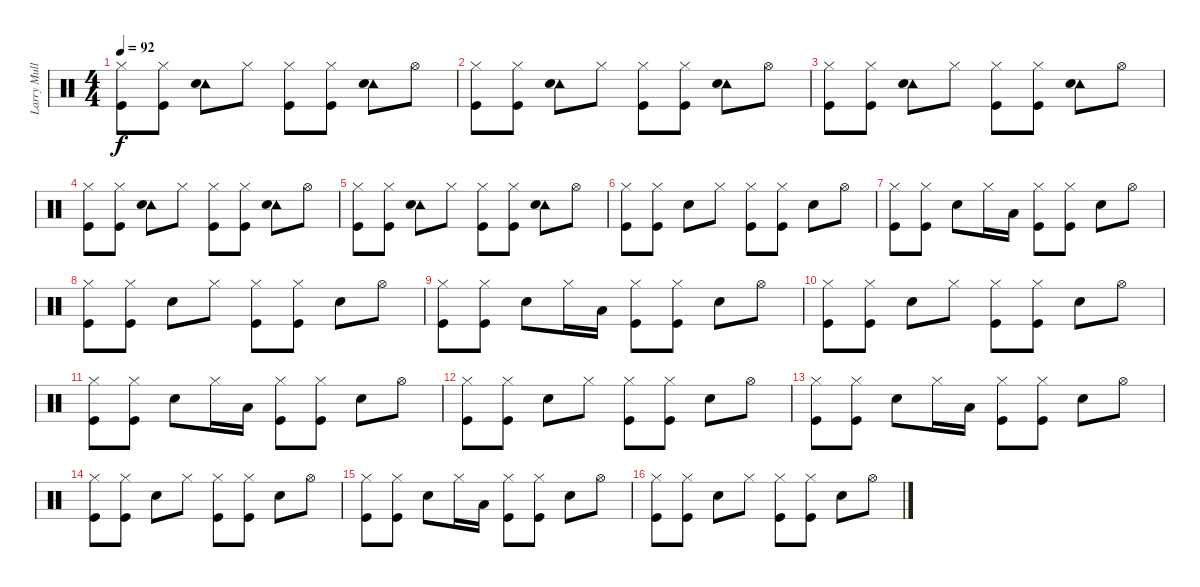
\track ("Larry Mullen Junior" "Larry Mull") {instrument percussion}
\staff {score}
\articulation defaults
\ts (4 4)
\tempo 92
\clef neutral
\ks c
("Hi-Hat (closed)" "Kick (hit)").8{dy f} ("Hi-Hat (closed)" "Kick (hit)").8 ("Tambourine (hit)" "Electric Snare (hit)").8 "Hi-Hat (closed)".8 ("Hi-Hat (closed)" "Kick (hit)").8 ("Hi-Hat (closed)" "Kick (hit)").8 ("Tambourine (hit)" "Electric Snare (hit)").8 "Hi-Hat (open)".8 |
("Hi-Hat (closed)" "Kick (hit)").8 ("Hi-Hat (closed)" "Kick (hit)").8 ("Tambourine (hit)" "Electric Snare (hit)").8 "Hi-Hat (closed)".8 ("Hi-Hat (closed)" "Kick (hit)").8 ("Hi-Hat (closed)" "Kick (hit)").8 ("Tambourine (hit)" "Electric Snare (hit)").8 "Hi-Hat (open)".8 |
("Hi-Hat (closed)" "Kick (hit)").8 ("Hi-Hat (closed)" "Kick (hit)").8 ("Tambourine (hit)" "Electric Snare (hit)").8 "Hi-Hat (closed)".8 ("Hi-Hat (closed)" "Kick (hit)").8 ("Hi-Hat (closed)" "Kick (hit)").8 ("Tambourine (hit)" "Electric Snare (hit)").8 "Hi-Hat (open)".8 |
("Hi-Hat (closed)" "Kick (hit)").8 ("Hi-Hat (closed)" "Kick (hit)").8 ("Tambourine (hit)" "Electric Snare (hit)").8 "Hi-Hat (closed)".8 ("Hi-Hat (closed)" "Kick (hit)").8 ("Hi-Hat (closed)" "Kick (hit)").8 ("Tambourine (hit)" "Electric Snare (hit)").8 "Hi-Hat (open)".8 |
("Hi-Hat (closed)" "Kick (hit)").8 ("Hi-Hat (closed)" "Kick (hit)").8 ("Tambourine (hit)" "Electric Snare (hit)").8 "Hi-Hat (closed)".8 ("Hi-Hat (closed)" "Kick (hit)").8 ("Hi-Hat (closed)" "Kick (hit)").8 ("Tambourine (hit)" "Electric Snare (hit)").8 "Hi-Hat (open)".8 |
("Hi-Hat (closed)" "Kick (hit)").8 ("Hi-Hat (closed)" "Kick (hit)").8 "Electric Snare (hit)".8 "Hi-Hat (closed)".8 ("Hi-Hat (closed)" "Kick (hit)").8 ("Hi-Hat (closed)" "Kick (hit)").8 "Electric Snare (hit)".8 "Hi-Hat (open)".8 |
("Hi-Hat (closed)" "Kick (hit)").8 ("Hi-Hat (closed)" "Kick (hit)").8 "Electric Snare (hit)".8 "Hi-Hat (closed)".16 "Low Floor Tom (hit)".16 ("Hi-Hat (closed)" "Kick (hit)").8 ("Hi-Hat (closed)" "Kick (hit)").8 "Electric Snare (hit)".8 "Hi-Hat (open)".8 |
("Hi-Hat (closed)" "Kick (hit)").8 ("Hi-Hat (closed)" "Kick (hit)").8 "Electric Snare (hit)".8 "Hi-Hat (closed)".8 ("Hi-Hat (closed)" "Kick (hit)").8 ("Hi-Hat (closed)" "Kick (hit)").8 "Electric Snare (hit)".8 "Hi-Hat (open)".8 |
("Hi-Hat (closed)" "Kick (hit)").8 ("Hi-Hat (closed)" "Kick (hit)").8 "Electric Snare (hit)".8 "Hi-Hat (closed)".16 "Low Floor Tom (hit)".16 ("Hi-Hat (closed)" "Kick (hit)").8 ("Hi-Hat (closed)" "Kick (hit)").8 "Electric Snare (hit)".8 "Hi-Hat (open)".8 |
("Hi-Hat (closed)" "Kick (hit)").8 ("Hi-Hat (closed)" "Kick (hit)").8 "Electric Snare (hit)".8 "Hi-Hat (closed)".8 ("Hi-Hat (closed)" "Kick (hit)").8 ("Hi-Hat (closed)" "Kick (hit)").8 "Electric Snare (hit)".8 "Hi-Hat (open)".8 |
("Hi-Hat (closed)" "Kick (hit)").8 ("Hi-Hat (closed)" "Kick (hit)").8 "Electric Snare (hit)".8 "Hi-Hat (closed)".16 "Low Floor Tom (hit)".16 ("Hi-Hat (closed)" "Kick (hit)").8 ("Hi-Hat (closed)" "Kick (hit)").8 "Electric Snare (hit)".8 "Hi-Hat (open)".8 |
("Hi-Hat (closed)" "Kick (hit)").8 ("Hi-Hat (closed)" "Kick (hit)").8 "Electric Snare (hit)".8 "Hi-Hat (closed)".8 ("Hi-Hat (closed)" "Kick (hit)").8 ("Hi-Hat (closed)" "Kick (hit)").8 "Electric Snare (hit)".8 "Hi-Hat (open)".8 |
("Hi-Hat (closed)" "Kick (hit)").8 ("Hi-Hat (closed)" "Kick (hit)").8 "Electric Snare (hit)".8 "Hi-Hat (closed)".16 "Low Floor Tom (hit)".16 ("Hi-Hat (closed)" "Kick (hit)").8 ("Hi-Hat (closed)" "Kick (hit)").8 "Electric Snare (hit)".8 "Hi-Hat (open)".8 |
("Hi-Hat (closed)" "Kick (hit)").8 ("Hi-Hat (closed)" "Kick (hit)").8 "Electric Snare (hit)".8 "Hi-Hat (closed)".8 ("Hi-Hat (closed)" "Kick (hit)").8 ("Hi-Hat (closed)" "Kick (hit)").8 "Electric Snare (hit)".8 "Hi-Hat (open)".8 |
("Hi-Hat (closed)" "Kick (hit)").8 ("Hi-Hat (closed)" "Kick (hit)").8 "Electric Snare (hit)".8 "Hi-Hat (closed)".16 "Low Floor Tom (hit)".16 ("Hi-Hat (closed)" "Kick (hit)").8 ("Hi-Hat (closed)" "Kick (hit)").8 "Electric Snare (hit)".8 "Hi-Hat (open)".8 |
("Hi-Hat (closed)" "Kick (hit)").8 ("Hi-Hat (closed)" "Kick (hit)").8 "Electric Snare (hit)".8 "Hi-Hat (closed)".8 ("Hi-Hat (closed)" "Kick (hit)").8 ("Hi-Hat (closed)" "Kick (hit)").8 "Electric Snare (hit)".8 "Hi-Hat (open)".8
